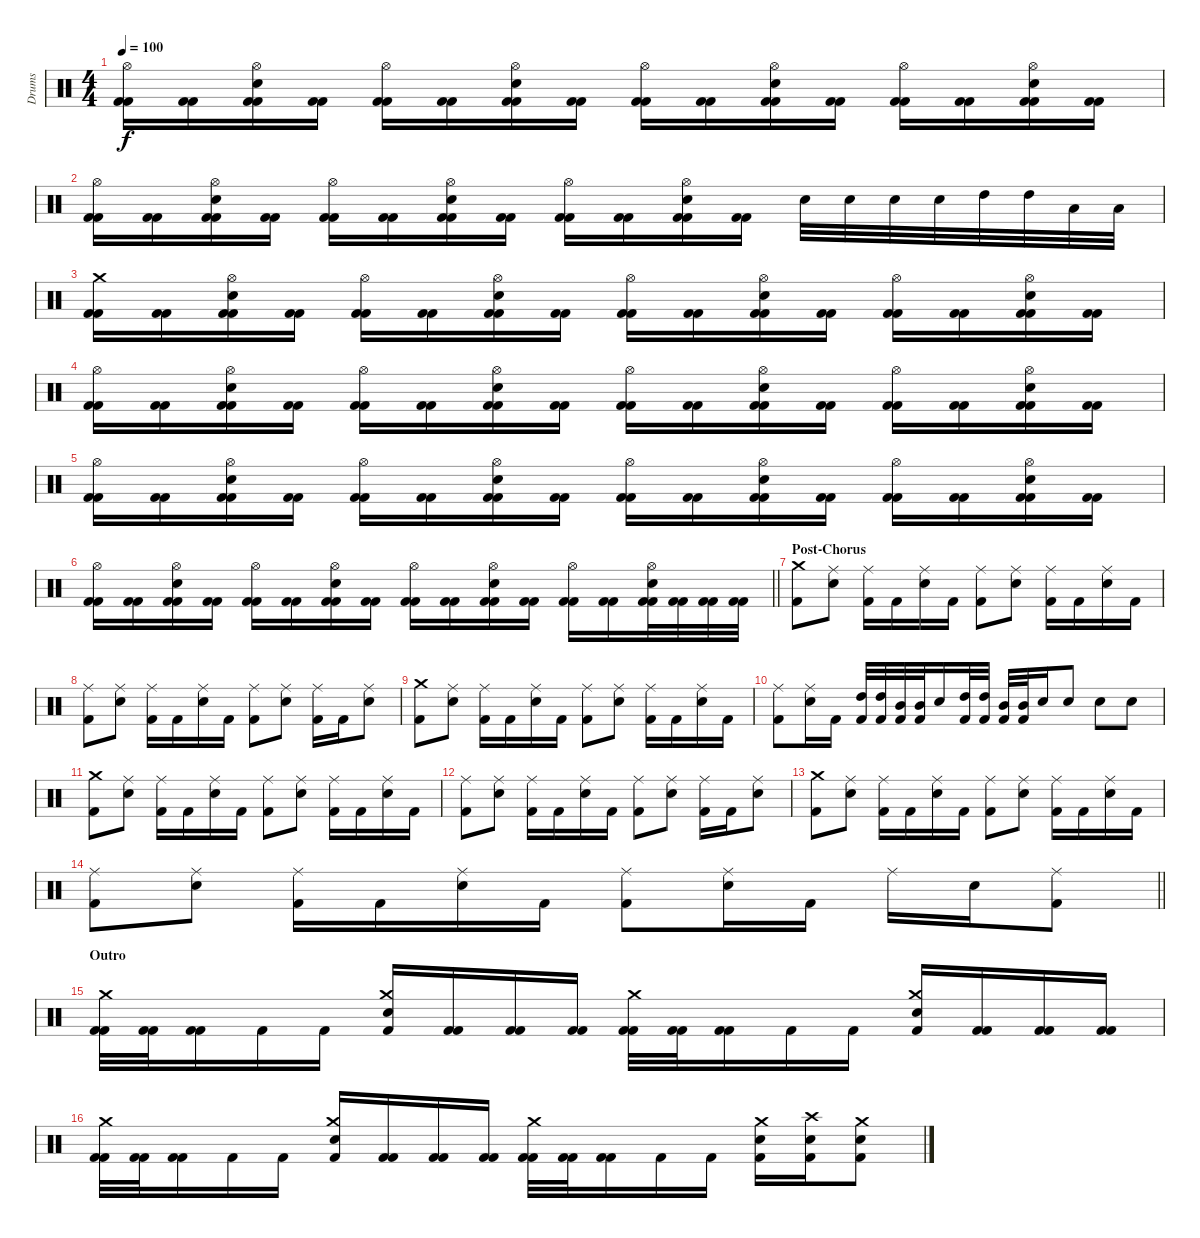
\track ("Drums" "Drums") {instrument percussion}
\staff {score}
\articulation defaults
\ts (4 4)
\tempo 100
\clef neutral
\ks c
("Hi-Hat (open)" "Kick (hit) 2" "Kick (hit) 2").16{dy f} ("Kick (hit) 2" "Kick (hit) 2").16 ("Hi-Hat (open)" "Electric Snare (hit)" "Kick (hit) 2" "Kick (hit) 2").16 ("Kick (hit) 2" "Kick (hit) 2").16 ("Hi-Hat (open)" "Kick (hit) 2" "Kick (hit) 2").16 ("Kick (hit) 2" "Kick (hit) 2").16 ("Hi-Hat (open)" "Electric Snare (hit)" "Kick (hit) 2" "Kick (hit) 2").16 ("Kick (hit) 2" "Kick (hit) 2").16 ("Hi-Hat (open)" "Kick (hit) 2" "Kick (hit) 2").16 ("Kick (hit) 2" "Kick (hit) 2").16 ("Hi-Hat (open)" "Electric Snare (hit)" "Kick (hit) 2" "Kick (hit) 2").16 ("Kick (hit) 2" "Kick (hit) 2").16 ("Hi-Hat (open)" "Kick (hit) 2" "Kick (hit) 2").16 ("Kick (hit) 2" "Kick (hit) 2").16 ("Hi-Hat (open)" "Electric Snare (hit)" "Kick (hit) 2" "Kick (hit) 2").16 ("Kick (hit) 2" "Kick (hit) 2").16 |
("Hi-Hat (open)" "Kick (hit) 2" "Kick (hit) 2").16 ("Kick (hit) 2" "Kick (hit) 2").16 ("Hi-Hat (open)" "Electric Snare (hit)" "Kick (hit) 2" "Kick (hit) 2").16 ("Kick (hit) 2" "Kick (hit) 2").16 ("Hi-Hat (open)" "Kick (hit) 2" "Kick (hit) 2").16 ("Kick (hit) 2" "Kick (hit) 2").16 ("Hi-Hat (open)" "Electric Snare (hit)" "Kick (hit) 2" "Kick (hit) 2").16 ("Kick (hit) 2" "Kick (hit) 2").16 ("Hi-Hat (open)" "Kick (hit) 2" "Kick (hit) 2").16 ("Kick (hit) 2" "Kick (hit) 2").16 ("Hi-Hat (open)" "Electric Snare (hit)" "Kick (hit) 2" "Kick (hit) 2").16 ("Kick (hit) 2" "Kick (hit) 2").16 "Electric Snare (hit)".32 "Electric Snare (hit)".32 "Electric Snare (hit)".32 "Electric Snare (hit)".32 "High Tom (hit)".32 "High Tom (hit)".32 "Low Tom (hit)".32 "Low Tom (hit)".32 |
("Crash medium (hit)" "Kick (hit) 2" "Kick (hit) 2").16 ("Kick (hit) 2" "Kick (hit) 2").16 ("Hi-Hat (open)" "Electric Snare (hit)" "Kick (hit) 2" "Kick (hit) 2").16 ("Kick (hit) 2" "Kick (hit) 2").16 ("Hi-Hat (open)" "Kick (hit) 2" "Kick (hit) 2").16 ("Kick (hit) 2" "Kick (hit) 2").16 ("Hi-Hat (open)" "Electric Snare (hit)" "Kick (hit) 2" "Kick (hit) 2").16 ("Kick (hit) 2" "Kick (hit) 2").16 ("Hi-Hat (open)" "Kick (hit) 2" "Kick (hit) 2").16 ("Kick (hit) 2" "Kick (hit) 2").16 ("Hi-Hat (open)" "Electric Snare (hit)" "Kick (hit) 2" "Kick (hit) 2").16 ("Kick (hit) 2" "Kick (hit) 2").16 ("Hi-Hat (open)" "Kick (hit) 2" "Kick (hit) 2").16 ("Kick (hit) 2" "Kick (hit) 2").16 ("Hi-Hat (open)" "Electric Snare (hit)" "Kick (hit) 2" "Kick (hit) 2").16 ("Kick (hit) 2" "Kick (hit) 2").16 |
("Hi-Hat (open)" "Kick (hit) 2" "Kick (hit) 2").16 ("Kick (hit) 2" "Kick (hit) 2").16 ("Hi-Hat (open)" "Electric Snare (hit)" "Kick (hit) 2" "Kick (hit) 2").16 ("Kick (hit) 2" "Kick (hit) 2").16 ("Hi-Hat (open)" "Kick (hit) 2" "Kick (hit) 2").16 ("Kick (hit) 2" "Kick (hit) 2").16 ("Hi-Hat (open)" "Electric Snare (hit)" "Kick (hit) 2" "Kick (hit) 2").16 ("Kick (hit) 2" "Kick (hit) 2").16 ("Hi-Hat (open)" "Kick (hit) 2" "Kick (hit) 2").16 ("Kick (hit) 2" "Kick (hit) 2").16 ("Hi-Hat (open)" "Electric Snare (hit)" "Kick (hit) 2" "Kick (hit) 2").16 ("Kick (hit) 2" "Kick (hit) 2").16 ("Hi-Hat (open)" "Kick (hit) 2" "Kick (hit) 2").16 ("Kick (hit) 2" "Kick (hit) 2").16 ("Hi-Hat (open)" "Electric Snare (hit)" "Kick (hit) 2" "Kick (hit) 2").16 ("Kick (hit) 2" "Kick (hit) 2").16 |
("Hi-Hat (open)" "Kick (hit) 2" "Kick (hit) 2").16 ("Kick (hit) 2" "Kick (hit) 2").16 ("Hi-Hat (open)" "Electric Snare (hit)" "Kick (hit) 2" "Kick (hit) 2").16 ("Kick (hit) 2" "Kick (hit) 2").16 ("Hi-Hat (open)" "Kick (hit) 2" "Kick (hit) 2").16 ("Kick (hit) 2" "Kick (hit) 2").16 ("Hi-Hat (open)" "Electric Snare (hit)" "Kick (hit) 2" "Kick (hit) 2").16 ("Kick (hit) 2" "Kick (hit) 2").16 ("Hi-Hat (open)" "Kick (hit) 2" "Kick (hit) 2").16 ("Kick (hit) 2" "Kick (hit) 2").16 ("Hi-Hat (open)" "Electric Snare (hit)" "Kick (hit) 2" "Kick (hit) 2").16 ("Kick (hit) 2" "Kick (hit) 2").16 ("Hi-Hat (open)" "Kick (hit) 2" "Kick (hit) 2").16 ("Kick (hit) 2" "Kick (hit) 2").16 ("Hi-Hat (open)" "Electric Snare (hit)" "Kick (hit) 2" "Kick (hit) 2").16 ("Kick (hit) 2" "Kick (hit) 2").16 |
\barLineRight lightlight
("Hi-Hat (open)" "Kick (hit) 2" "Kick (hit) 2").16 ("Kick (hit) 2" "Kick (hit) 2").16 ("Hi-Hat (open)" "Electric Snare (hit)" "Kick (hit) 2" "Kick (hit) 2").16 ("Kick (hit) 2" "Kick (hit) 2").16 ("Hi-Hat (open)" "Kick (hit) 2" "Kick (hit) 2").16 ("Kick (hit) 2" "Kick (hit) 2").16 ("Hi-Hat (open)" "Electric Snare (hit)" "Kick (hit) 2" "Kick (hit) 2").16 ("Kick (hit) 2" "Kick (hit) 2").16 ("Hi-Hat (open)" "Kick (hit) 2" "Kick (hit) 2").16 ("Kick (hit) 2" "Kick (hit) 2").16 ("Hi-Hat (open)" "Electric Snare (hit)" "Kick (hit) 2" "Kick (hit) 2").16 ("Kick (hit) 2" "Kick (hit) 2").16 ("Hi-Hat (open)" "Kick (hit) 2" "Kick (hit) 2").16 ("Kick (hit) 2" "Kick (hit) 2").16 ("Hi-Hat (open)" "Electric Snare (hit)" "Kick (hit) 2" "Kick (hit) 2").32 ("Kick (hit) 2" "Kick (hit) 2").32 ("Kick (hit) 2" "Kick (hit) 2").32 ("Kick (hit) 2" "Kick (hit) 2").32 |
\section ("" "Post-Chorus")
("Crash medium (hit)" "Kick (hit) 2").8 ("Ride (middle)" "Electric Snare (hit)").8 ("Ride (middle)" "Kick (hit) 2").16 "Kick (hit) 2".16 ("Ride (middle)" "Electric Snare (hit)").16 "Kick (hit) 2".16 ("Ride (middle)" "Kick (hit) 2").8 ("Ride (middle)" "Electric Snare (hit)").8 ("Ride (middle)" "Kick (hit) 2").16 "Kick (hit) 2".16 ("Ride (middle)" "Electric Snare (hit)").16 "Kick (hit) 2".16 |
("Ride (middle)" "Kick (hit) 2").8 ("Ride (middle)" "Electric Snare (hit)").8 ("Ride (middle)" "Kick (hit) 2").16 "Kick (hit) 2".16 ("Ride (middle)" "Electric Snare (hit)").16 "Kick (hit) 2".16 ("Ride (middle)" "Kick (hit) 2").8 ("Ride (middle)" "Electric Snare (hit)").8 ("Ride (middle)" "Kick (hit) 2").16 "Kick (hit) 2".16 ("Ride (middle)" "Electric Snare (hit)").8 |
("Crash medium (hit)" "Kick (hit) 2").8 ("Ride (middle)" "Electric Snare (hit)").8 ("Ride (middle)" "Kick (hit) 2").16 "Kick (hit) 2".16 ("Ride (middle)" "Electric Snare (hit)").16 "Kick (hit) 2".16 ("Ride (middle)" "Kick (hit) 2").8 ("Ride (middle)" "Electric Snare (hit)").8 ("Ride (middle)" "Kick (hit) 2").16 "Kick (hit) 2".16 ("Ride (middle)" "Electric Snare (hit)").16 "Kick (hit) 2".16 |
("Ride (middle)" "Kick (hit) 2").8 ("Ride (middle)" "Electric Snare (hit)").16 "Kick (hit) 2".16 ("High Tom (hit)" "Kick (hit) 2").32 ("High Tom (hit)" "Kick (hit) 2").32 ("Mid Tom (hit)" "Kick (hit) 2").32 ("Mid Tom (hit)" "Kick (hit) 2").32 "Electric Snare (hit)".16 ("High Tom (hit)" "Kick (hit) 2").32 ("High Tom (hit)" "Kick (hit) 2").32 ("Mid Tom (hit)" "Kick (hit) 2").32 ("Mid Tom (hit)" "Kick (hit) 2").32 "Electric Snare (hit)".16 "Electric Snare (hit)".8 "Electric Snare (hit)".8 "Electric Snare (hit)".8 |
("Crash medium (hit)" "Kick (hit) 2").8 ("Ride (middle)" "Electric Snare (hit)").8 ("Ride (middle)" "Kick (hit) 2").16 "Kick (hit) 2".16 ("Ride (middle)" "Electric Snare (hit)").16 "Kick (hit) 2".16 ("Ride (middle)" "Kick (hit) 2").8 ("Ride (middle)" "Electric Snare (hit)").8 ("Ride (middle)" "Kick (hit) 2").16 "Kick (hit) 2".16 ("Ride (middle)" "Electric Snare (hit)").16 "Kick (hit) 2".16 |
("Ride (middle)" "Kick (hit) 2").8 ("Ride (middle)" "Electric Snare (hit)").8 ("Ride (middle)" "Kick (hit) 2").16 "Kick (hit) 2".16 ("Ride (middle)" "Electric Snare (hit)").16 "Kick (hit) 2".16 ("Ride (middle)" "Kick (hit) 2").8 ("Ride (middle)" "Electric Snare (hit)").8 ("Ride (middle)" "Kick (hit) 2").16 "Kick (hit) 2".16 ("Ride (middle)" "Electric Snare (hit)").8 |
("Crash medium (hit)" "Kick (hit) 2").8 ("Ride (middle)" "Electric Snare (hit)").8 ("Ride (middle)" "Kick (hit) 2").16 "Kick (hit) 2".16 ("Ride (middle)" "Electric Snare (hit)").16 "Kick (hit) 2".16 ("Ride (middle)" "Kick (hit) 2").8 ("Ride (middle)" "Electric Snare (hit)").8 ("Ride (middle)" "Kick (hit) 2").16 "Kick (hit) 2".16 ("Ride (middle)" "Electric Snare (hit)").16 "Kick (hit) 2".16 |
\barLineRight lightlight
("Ride (middle)" "Kick (hit) 2").8 ("Ride (middle)" "Electric Snare (hit)").8 ("Ride (middle)" "Kick (hit) 2").16 "Kick (hit) 2".16 ("Ride (middle)" "Electric Snare (hit)").16 "Kick (hit) 2".16 ("Ride (middle)" "Kick (hit) 2").8 ("Ride (middle)" "Electric Snare (hit)").16 "Kick (hit) 2".16 "Ride (middle)".16 "Electric Snare (hit)".16 ("Ride (middle)" "Kick (hit) 2").8 |
\section ("" "Outro")
("Crash medium (hit)" "Kick (hit) 2" "Kick (hit) 2").32 ("Kick (hit) 2" "Kick (hit) 2").32 ("Kick (hit) 2" "Kick (hit) 2").16 "Kick (hit) 2".16 "Kick (hit) 2".16 ("Crash medium (hit)" "Snare (hit) 2" "Kick (hit) 2").16 ("Kick (hit) 2" "Kick (hit) 2").16 ("Kick (hit) 2" "Kick (hit) 2").16 ("Kick (hit) 2" "Kick (hit) 2").16 ("Crash medium (hit)" "Kick (hit) 2" "Kick (hit) 2").32 ("Kick (hit) 2" "Kick (hit) 2").32 ("Kick (hit) 2" "Kick (hit) 2").16 "Kick (hit) 2".16 "Kick (hit) 2".16 ("Crash medium (hit)" "Snare (hit) 2" "Kick (hit) 2").16 ("Kick (hit) 2" "Kick (hit) 2").16 ("Kick (hit) 2" "Kick (hit) 2").16 ("Kick (hit) 2" "Kick (hit) 2").16 |
("Crash medium (hit)" "Kick (hit) 2" "Kick (hit) 2").32 ("Kick (hit) 2" "Kick (hit) 2").32 ("Kick (hit) 2" "Kick (hit) 2").16 "Kick (hit) 2".16 "Kick (hit) 2".16 ("Crash medium (hit)" "Snare (hit) 2" "Kick (hit) 2").16 ("Kick (hit) 2" "Kick (hit) 2").16 ("Kick (hit) 2" "Kick (hit) 2").16 ("Kick (hit) 2" "Kick (hit) 2").16 ("Crash medium (hit)" "Kick (hit) 2" "Kick (hit) 2").32 ("Kick (hit) 2" "Kick (hit) 2").32 ("Kick (hit) 2" "Kick (hit) 2").16 "Kick (hit) 2".16 "Kick (hit) 2".16 ("Crash medium (hit)" "Snare (hit) 2" "Kick (hit) 2").16 ("Crash high (hit)" "Snare (hit) 2" "Kick (hit) 2").16 ("Crash medium (hit)" "Snare (hit) 2" "Kick (hit) 2").8
